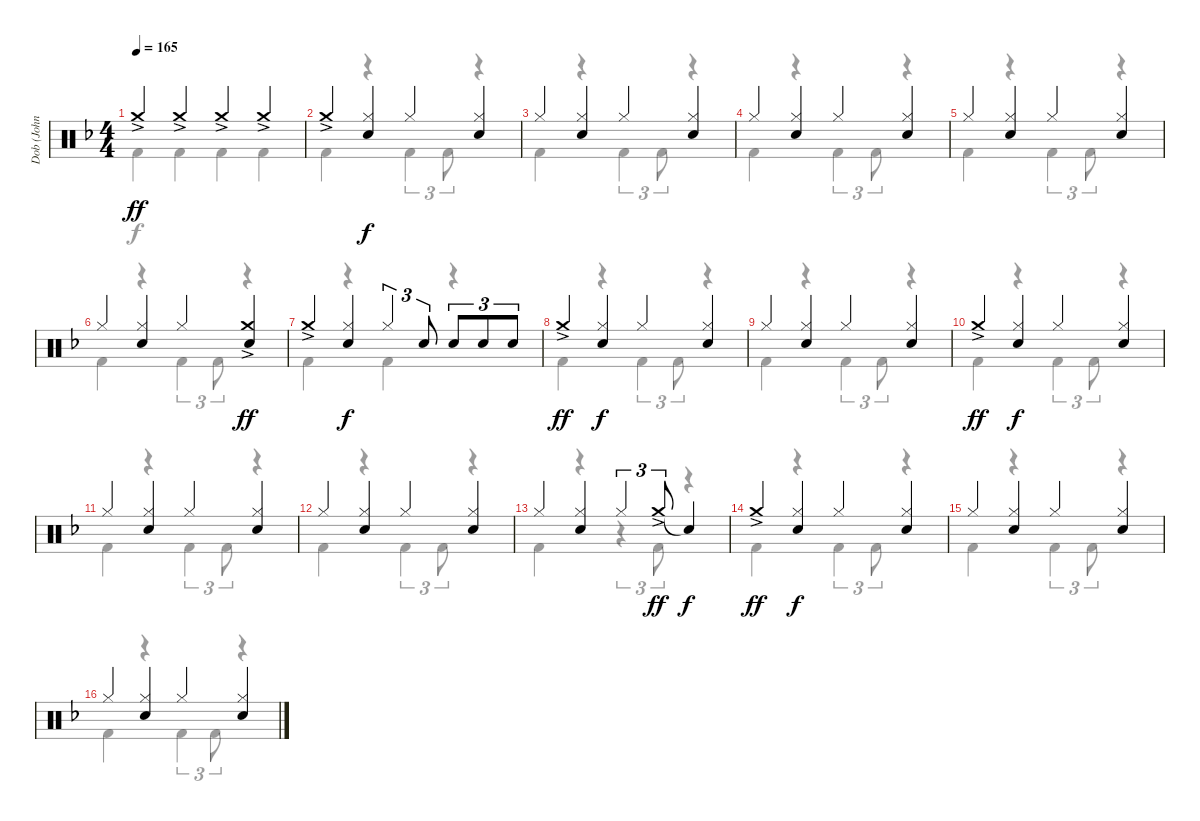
\track ("Dob (John O’Reilly)" "Dob (John ") {instrument percussion}
\staff {score}
\articulation defaults
\voice
\ts (4 4)
\tempo 165
\clef neutral
\ks f "Crash medium (hit)"{ac}.4{dy ff} "Crash medium (hit)"{ac}.4 "Crash medium (hit)"{ac}.4 "Crash medium (hit)"{ac}.4
|
"Crash medium (hit)"{ac}.4 ("Hi-Hat (closed)" "Electric Snare (hit)").4{dy f} "Hi-Hat (closed)".4 ("Hi-Hat (closed)" "Electric Snare (hit)").4 |
"Hi-Hat (closed)".4 ("Hi-Hat (closed)" "Electric Snare (hit)").4 "Hi-Hat (closed)".4 ("Hi-Hat (closed)" "Electric Snare (hit)").4 |
"Hi-Hat (closed)".4 ("Hi-Hat (closed)" "Electric Snare (hit)").4 "Hi-Hat (closed)".4 ("Hi-Hat (closed)" "Electric Snare (hit)").4 |
"Hi-Hat (closed)".4 ("Hi-Hat (closed)" "Electric Snare (hit)").4 "Hi-Hat (closed)".4 ("Hi-Hat (closed)" "Electric Snare (hit)").4 |
"Hi-Hat (closed)".4 ("Hi-Hat (closed)" "Electric Snare (hit)").4 "Hi-Hat (closed)".4 ("Crash medium (hit)"{ac} "Electric Snare (hit)").4{dy ff} |
"Crash medium (hit)"{ac}.4 ("Hi-Hat (closed)" "Electric Snare (hit)").4{dy f} "Hi-Hat (closed)".4{tu (3 2)} "Electric Snare (hit)".8{tu (3 2)} "Electric Snare (hit)".8{tu (3 2)} "Electric Snare (hit)".8{tu (3 2)} "Electric Snare (hit)".8{tu (3 2)} |
"Crash medium (hit)"{ac}.4{dy ff} ("Hi-Hat (closed)" "Electric Snare (hit)").4{dy f} "Hi-Hat (closed)".4 ("Hi-Hat (closed)" "Electric Snare (hit)").4 |
"Hi-Hat (closed)".4 ("Hi-Hat (closed)" "Electric Snare (hit)").4 "Hi-Hat (closed)".4 ("Hi-Hat (closed)" "Electric Snare (hit)").4 |
"Crash medium (hit)"{ac}.4{dy ff} ("Hi-Hat (closed)" "Electric Snare (hit)").4{dy f} "Hi-Hat (closed)".4 ("Hi-Hat (closed)" "Electric Snare (hit)").4 |
"Hi-Hat (closed)".4 ("Hi-Hat (closed)" "Electric Snare (hit)").4 "Hi-Hat (closed)".4 ("Hi-Hat (closed)" "Electric Snare (hit)").4 |
"Hi-Hat (closed)".4 ("Hi-Hat (closed)" "Electric Snare (hit)").4 "Hi-Hat (closed)".4 ("Hi-Hat (closed)" "Electric Snare (hit)").4 |
"Hi-Hat (closed)".4 ("Hi-Hat (closed)" "Electric Snare (hit)").4 "Hi-Hat (closed)".4{tu (3 2)} "Crash medium (hit)"{ac}.8{tu (3 2) dy ff} "Snare (hit)"{t}.4{dy f} |
"Crash medium (hit)"{ac}.4{dy ff} ("Hi-Hat (closed)" "Electric Snare (hit)").4{dy f} "Hi-Hat (closed)".4 ("Hi-Hat (closed)" "Electric Snare (hit)").4 |
"Hi-Hat (closed)".4 ("Hi-Hat (closed)" "Electric Snare (hit)").4 "Hi-Hat (closed)".4 ("Hi-Hat (closed)" "Electric Snare (hit)").4 |
"Hi-Hat (closed)".4 ("Hi-Hat (closed)" "Electric Snare (hit)").4 "Hi-Hat (closed)".4 ("Hi-Hat (closed)" "Electric Snare (hit)").4
\voice
\clef neutral
\ottava regular
\simile none
\ks f "Kick (hit) 2".4{dy f} "Kick (hit) 2".4 "Kick (hit) 2".4 "Kick (hit) 2".4
|
"Kick (hit) 2".4 r.4 "Kick (hit) 2".4{tu (3 2)} "Kick (hit) 2".8{tu (3 2)} r.4 |
"Kick (hit) 2".4 r.4 "Kick (hit) 2".4{tu (3 2)} "Kick (hit) 2".8{tu (3 2)} r.4 |
"Kick (hit) 2".4 r.4 "Kick (hit) 2".4{tu (3 2)} "Kick (hit) 2".8{tu (3 2)} r.4 |
"Kick (hit) 2".4 r.4 "Kick (hit) 2".4{tu (3 2)} "Kick (hit) 2".8{tu (3 2)} r.4 |
"Kick (hit) 2".4 r.4 "Kick (hit) 2".4{tu (3 2)} "Kick (hit) 2".8{tu (3 2)} r.4 |
"Kick (hit) 2".4 r.4 "Kick (hit) 2".4 r.4 |
"Kick (hit) 2".4 r.4 "Kick (hit) 2".4{tu (3 2)} "Kick (hit) 2".8{tu (3 2)} r.4 |
"Kick (hit) 2".4 r.4 "Kick (hit) 2".4{tu (3 2)} "Kick (hit) 2".8{tu (3 2)} r.4 |
"Kick (hit) 2".4 r.4 "Kick (hit) 2".4{tu (3 2)} "Kick (hit) 2".8{tu (3 2)} r.4 |
"Kick (hit) 2".4 r.4 "Kick (hit) 2".4{tu (3 2)} "Kick (hit) 2".8{tu (3 2)} r.4 |
"Kick (hit) 2".4 r.4 "Kick (hit) 2".4{tu (3 2)} "Kick (hit) 2".8{tu (3 2)} r.4 |
"Kick (hit) 2".4 r.4 r.4{tu (3 2)} "Kick (hit) 2".8{tu (3 2)} r.4 |
"Kick (hit) 2".4 r.4 "Kick (hit) 2".4{tu (3 2)} "Kick (hit) 2".8{tu (3 2)} r.4 |
"Kick (hit) 2".4 r.4 "Kick (hit) 2".4{tu (3 2)} "Kick (hit) 2".8{tu (3 2)} r.4 |
"Kick (hit) 2".4 r.4 "Kick (hit) 2".4{tu (3 2)} "Kick (hit) 2".8{tu (3 2)} r.4
